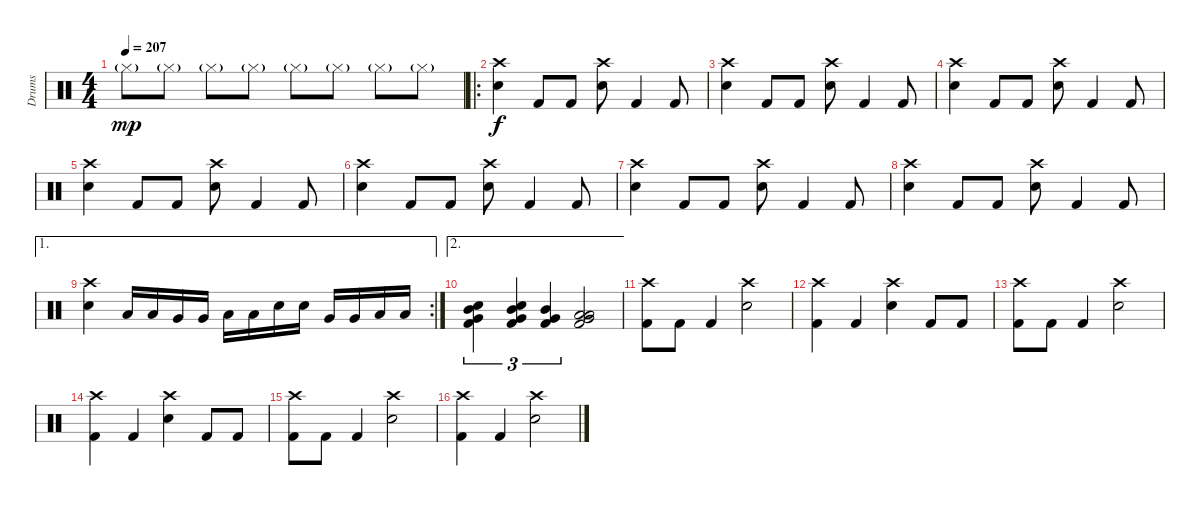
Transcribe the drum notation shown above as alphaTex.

\track ("Drums" "Drums") {instrument percussion}
\staff {score}
\articulation defaults
\ts (4 4)
\tempo 207
\clef neutral
\ks c "Hi-Hat (closed)"{g}.8{dy mp} "Hi-Hat (closed)"{g}.8 "Hi-Hat (closed)"{g}.8 "Hi-Hat (closed)"{g}.8 "Hi-Hat (closed)"{g}.8 "Hi-Hat (closed)"{g}.8 "Hi-Hat (closed)"{g}.8 "Hi-Hat (closed)"{g}.8
|
\ro
("Crash high (hit)" "Electric Snare (hit)").4{dy f volume 15} "Kick (hit) 2".8 "Kick (hit) 2".8 ("Crash high (hit)" "Electric Snare (hit)").8 "Kick (hit) 2".4 "Kick (hit) 2".8 |
("Crash high (hit)" "Electric Snare (hit)").4 "Kick (hit) 2".8 "Kick (hit) 2".8 ("Crash high (hit)" "Electric Snare (hit)").8 "Kick (hit) 2".4 "Kick (hit) 2".8 |
("Crash high (hit)" "Electric Snare (hit)").4 "Kick (hit) 2".8 "Kick (hit) 2".8 ("Crash high (hit)" "Electric Snare (hit)").8 "Kick (hit) 2".4 "Kick (hit) 2".8 |
("Crash high (hit)" "Electric Snare (hit)").4 "Kick (hit) 2".8 "Kick (hit) 2".8 ("Crash high (hit)" "Electric Snare (hit)").8 "Kick (hit) 2".4 "Kick (hit) 2".8 |
("Crash high (hit)" "Electric Snare (hit)").4 "Kick (hit) 2".8 "Kick (hit) 2".8 ("Crash high (hit)" "Electric Snare (hit)").8 "Kick (hit) 2".4 "Kick (hit) 2".8 |
("Crash high (hit)" "Electric Snare (hit)").4 "Kick (hit) 2".8 "Kick (hit) 2".8 ("Crash high (hit)" "Electric Snare (hit)").8 "Kick (hit) 2".4 "Kick (hit) 2".8 |
("Crash high (hit)" "Electric Snare (hit)").4 "Kick (hit) 2".8 "Kick (hit) 2".8 ("Crash high (hit)" "Electric Snare (hit)").8 "Kick (hit) 2".4 "Kick (hit) 2".8 |
\ae 1
\rc 2
("Crash high (hit)" "Electric Snare (hit)").4 "Low Tom (hit)".16 "Low Tom (hit)".16 "Very Low Tom (hit)".16 "Very Low Tom (hit)".16 "Low Floor Tom (hit)".16 "Low Floor Tom (hit)".16 "Electric Snare (hit)".16 "Electric Snare (hit)".16 "Very Low Tom (hit)".16 "Very Low Tom (hit)".16 "Low Floor Tom (hit)".16 "Low Floor Tom (hit)".16 |
\ae 2
("Mid Tom (hit)" "Very Low Tom (hit)" "Electric Snare (hit)" "Kick (hit) 2").4{tu (3 2)} ("Mid Tom (hit)" "Very Low Tom (hit)" "Snare (hit)" "Kick (hit) 2").4{tu (3 2)} ("Mid Tom (hit)" "Very Low Tom (hit)" "Kick (hit) 2").4{tu (3 2)} ("Low Tom (hit)" "Very Low Tom (hit)" "Low Floor Tom (hit)" "Kick (hit) 2").2 |
("Crash high (hit)" "Kick (hit) 2").8 "Kick (hit) 2".8 "Kick (hit) 2".4 ("Crash high (hit)" "Electric Snare (hit)").2 |
("Crash high (hit)" "Kick (hit) 2").4 "Kick (hit) 2".4 ("Crash high (hit)" "Electric Snare (hit)").4 "Kick (hit) 2".8 "Kick (hit) 2".8 |
("Crash high (hit)" "Kick (hit) 2").8 "Kick (hit) 2".8 "Kick (hit) 2".4 ("Crash high (hit)" "Electric Snare (hit)").2 |
("Crash high (hit)" "Kick (hit) 2").4 "Kick (hit) 2".4 ("Crash high (hit)" "Electric Snare (hit)").4 "Kick (hit) 2".8 "Kick (hit) 2".8 |
("Crash high (hit)" "Kick (hit) 2").8 "Kick (hit) 2".8 "Kick (hit) 2".4 ("Crash high (hit)" "Electric Snare (hit)").2 |
("Crash high (hit)" "Kick (hit) 2").4 "Kick (hit) 2".4 ("Crash high (hit)" "Electric Snare (hit)").2
